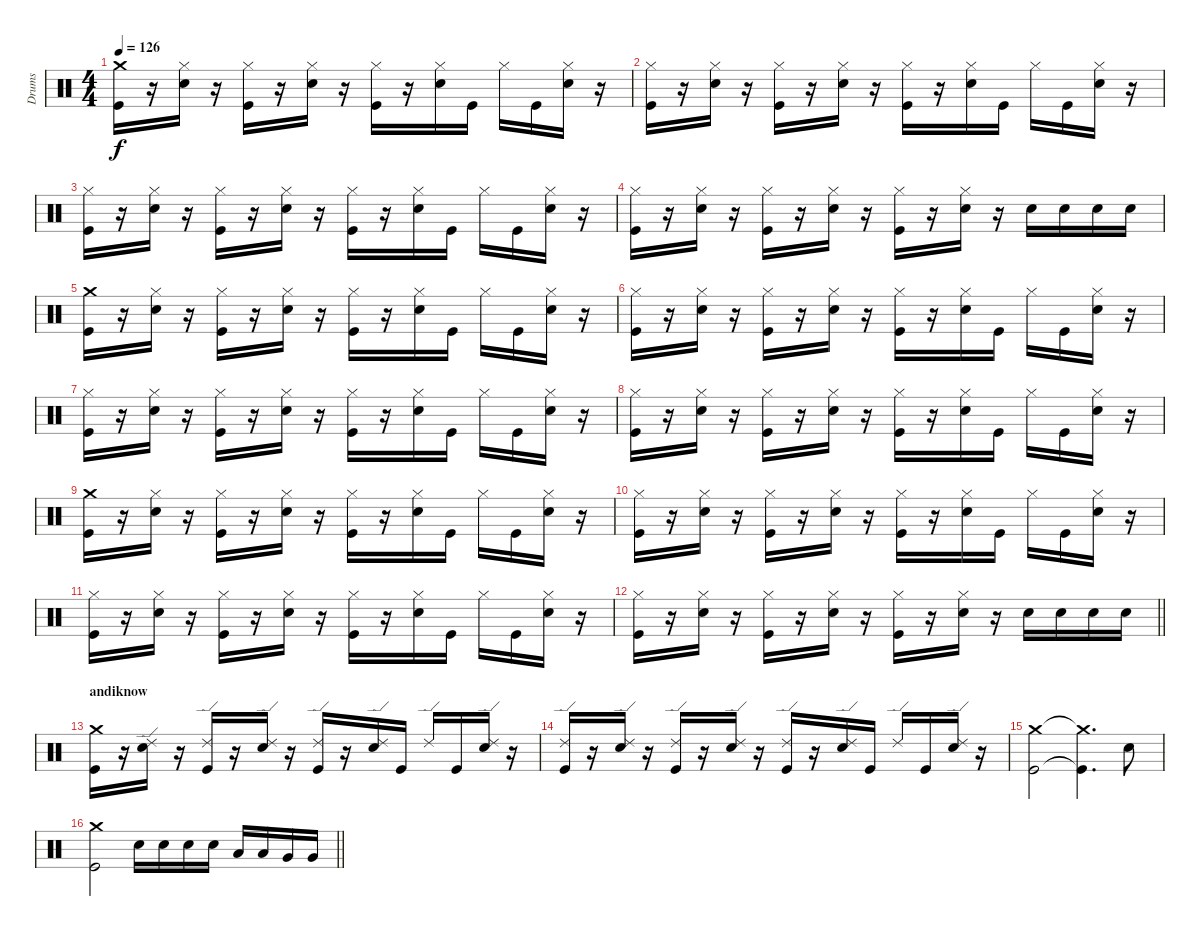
\track ("Drums" "Drums") {instrument percussion}
\staff {score}
\articulation defaults
\ts (4 4)
\tempo 126
\clef neutral
\ks c
("Crash medium (hit)" "Kick (hit)").16{dy f} r.16 ("Hi-Hat (closed)" "Snare (hit) 2").16 r.16 ("Hi-Hat (closed)" "Kick (hit)").16 r.16 ("Hi-Hat (closed)" "Snare (hit) 2").16 r.16 ("Hi-Hat (closed)" "Kick (hit)").16 r.16 ("Hi-Hat (closed)" "Snare (hit) 2").16 "Kick (hit)".16 "Hi-Hat (closed)".16 "Kick (hit)".16 ("Hi-Hat (closed)" "Snare (hit) 2").16 r.16 |
("Hi-Hat (closed)" "Kick (hit)").16 r.16 ("Hi-Hat (closed)" "Snare (hit) 2").16 r.16 ("Hi-Hat (closed)" "Kick (hit)").16 r.16 ("Hi-Hat (closed)" "Snare (hit) 2").16 r.16 ("Hi-Hat (closed)" "Kick (hit)").16 r.16 ("Hi-Hat (closed)" "Snare (hit) 2").16 "Kick (hit)".16 "Hi-Hat (closed)".16 "Kick (hit)".16 ("Hi-Hat (closed)" "Snare (hit) 2").16 r.16 |
("Hi-Hat (closed)" "Kick (hit)").16 r.16 ("Hi-Hat (closed)" "Snare (hit) 2").16 r.16 ("Hi-Hat (closed)" "Kick (hit)").16 r.16 ("Hi-Hat (closed)" "Snare (hit) 2").16 r.16 ("Hi-Hat (closed)" "Kick (hit)").16 r.16 ("Hi-Hat (closed)" "Snare (hit) 2").16 "Kick (hit)".16 "Hi-Hat (closed)".16 "Kick (hit)".16 ("Hi-Hat (closed)" "Snare (hit) 2").16 r.16 |
("Hi-Hat (closed)" "Kick (hit)").16 r.16 ("Hi-Hat (closed)" "Snare (hit) 2").16 r.16 ("Hi-Hat (closed)" "Kick (hit)").16 r.16 ("Hi-Hat (closed)" "Snare (hit) 2").16 r.16 ("Hi-Hat (closed)" "Kick (hit)").16 r.16 ("Hi-Hat (closed)" "Snare (hit) 2").16 r.16 "Snare (hit) 2".16 "Snare (hit) 2".16 "Snare (hit) 2".16 "Snare (hit) 2".16 |
("Crash medium (hit)" "Kick (hit)").16 r.16 ("Hi-Hat (closed)" "Snare (hit) 2").16 r.16 ("Hi-Hat (closed)" "Kick (hit)").16 r.16 ("Hi-Hat (closed)" "Snare (hit) 2").16 r.16 ("Hi-Hat (closed)" "Kick (hit)").16 r.16 ("Hi-Hat (closed)" "Snare (hit) 2").16 "Kick (hit)".16 "Hi-Hat (closed)".16 "Kick (hit)".16 ("Hi-Hat (closed)" "Snare (hit) 2").16 r.16 |
("Hi-Hat (closed)" "Kick (hit)").16 r.16 ("Hi-Hat (closed)" "Snare (hit) 2").16 r.16 ("Hi-Hat (closed)" "Kick (hit)").16 r.16 ("Hi-Hat (closed)" "Snare (hit) 2").16 r.16 ("Hi-Hat (closed)" "Kick (hit)").16 r.16 ("Hi-Hat (closed)" "Snare (hit) 2").16 "Kick (hit)".16 "Hi-Hat (closed)".16 "Kick (hit)".16 ("Hi-Hat (closed)" "Snare (hit) 2").16 r.16 |
("Hi-Hat (closed)" "Kick (hit)").16 r.16 ("Hi-Hat (closed)" "Snare (hit) 2").16 r.16 ("Hi-Hat (closed)" "Kick (hit)").16 r.16 ("Hi-Hat (closed)" "Snare (hit) 2").16 r.16 ("Hi-Hat (closed)" "Kick (hit)").16 r.16 ("Hi-Hat (closed)" "Snare (hit) 2").16 "Kick (hit)".16 "Hi-Hat (closed)".16 "Kick (hit)".16 ("Hi-Hat (closed)" "Snare (hit) 2").16 r.16 |
("Hi-Hat (closed)" "Kick (hit)").16 r.16 ("Hi-Hat (closed)" "Snare (hit) 2").16 r.16 ("Hi-Hat (closed)" "Kick (hit)").16 r.16 ("Hi-Hat (closed)" "Snare (hit) 2").16 r.16 ("Hi-Hat (closed)" "Kick (hit)").16 r.16 ("Hi-Hat (closed)" "Snare (hit) 2").16 "Kick (hit)".16 "Hi-Hat (closed)".16 "Kick (hit)".16 ("Hi-Hat (closed)" "Snare (hit) 2").16 r.16 |
("Crash medium (hit)" "Kick (hit)").16 r.16 ("Hi-Hat (closed)" "Snare (hit) 2").16 r.16 ("Hi-Hat (closed)" "Kick (hit)").16 r.16 ("Hi-Hat (closed)" "Snare (hit) 2").16 r.16 ("Hi-Hat (closed)" "Kick (hit)").16 r.16 ("Hi-Hat (closed)" "Snare (hit) 2").16 "Kick (hit)".16 "Hi-Hat (closed)".16 "Kick (hit)".16 ("Hi-Hat (closed)" "Snare (hit) 2").16 r.16 |
("Hi-Hat (closed)" "Kick (hit)").16 r.16 ("Hi-Hat (closed)" "Snare (hit) 2").16 r.16 ("Hi-Hat (closed)" "Kick (hit)").16 r.16 ("Hi-Hat (closed)" "Snare (hit) 2").16 r.16 ("Hi-Hat (closed)" "Kick (hit)").16 r.16 ("Hi-Hat (closed)" "Snare (hit) 2").16 "Kick (hit)".16 "Hi-Hat (closed)".16 "Kick (hit)".16 ("Hi-Hat (closed)" "Snare (hit) 2").16 r.16 |
("Hi-Hat (closed)" "Kick (hit)").16 r.16 ("Hi-Hat (closed)" "Snare (hit) 2").16 r.16 ("Hi-Hat (closed)" "Kick (hit)").16 r.16 ("Hi-Hat (closed)" "Snare (hit) 2").16 r.16 ("Hi-Hat (closed)" "Kick (hit)").16 r.16 ("Hi-Hat (closed)" "Snare (hit) 2").16 "Kick (hit)".16 "Hi-Hat (closed)".16 "Kick (hit)".16 ("Hi-Hat (closed)" "Snare (hit) 2").16 r.16 |
\barLineRight lightlight
("Hi-Hat (closed)" "Kick (hit)").16 r.16 ("Hi-Hat (closed)" "Snare (hit) 2").16 r.16 ("Hi-Hat (closed)" "Kick (hit)").16 r.16 ("Hi-Hat (closed)" "Snare (hit) 2").16 r.16 ("Hi-Hat (closed)" "Kick (hit)").16 r.16 ("Hi-Hat (closed)" "Snare (hit) 2").16 r.16 "Snare (hit) 2".16 "Snare (hit) 2".16 "Snare (hit) 2".16 "Snare (hit) 2".16 |
\section ("" "andiknow")
("Crash medium (hit)" "Kick (hit)").16 r.16 ("Ride (edge) 2" "Snare (hit) 2").16 r.16 ("Ride (edge) 2" "Kick (hit)").16 r.16 ("Ride (edge) 2" "Snare (hit) 2").16 r.16 ("Ride (edge) 2" "Kick (hit)").16 r.16 ("Ride (edge) 2" "Snare (hit) 2").16 "Kick (hit)".16 "Ride (edge) 2".16 "Kick (hit)".16 ("Ride (edge) 2" "Snare (hit) 2").16 r.16 |
("Ride (edge) 2" "Kick (hit)").16 r.16 ("Ride (edge) 2" "Snare (hit) 2").16 r.16 ("Ride (edge) 2" "Kick (hit)").16 r.16 ("Ride (edge) 2" "Snare (hit) 2").16 r.16 ("Ride (edge) 2" "Kick (hit)").16 r.16 ("Ride (edge) 2" "Snare (hit) 2").16 "Kick (hit)".16 "Ride (edge) 2".16 "Kick (hit)".16 ("Ride (edge) 2" "Snare (hit) 2").16 r.16 |
("Crash medium (hit)" "Kick (hit)").2 ("Crash medium (hit)"{t} "Kick (hit)"{t}).4{d} "Snare (hit) 2".8 |
\barLineRight lightlight
("Crash medium (hit)" "Kick (hit)").2 "Snare (hit) 2".16 "Snare (hit) 2".16 "Snare (hit) 2".16 "Snare (hit) 2".16 "Low Tom (hit)".16 "Low Tom (hit)".16 "Very Low Tom (hit)".16 "Very Low Tom (hit)".16
